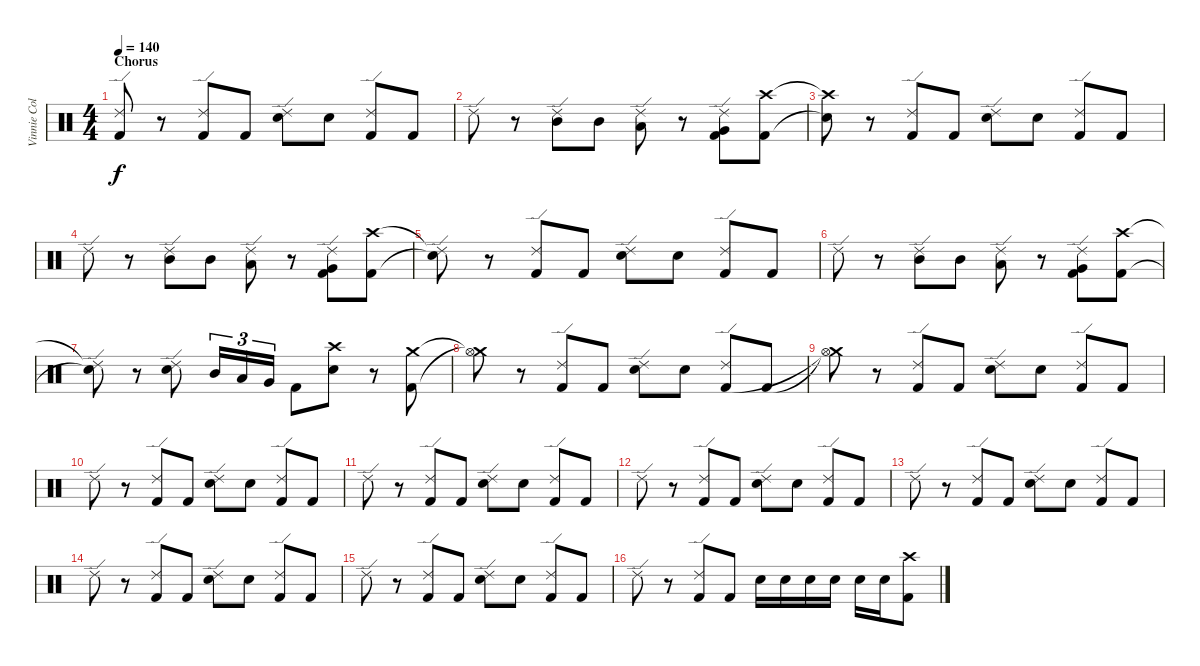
\track ("Vinnie Colaiuta" "Vinnie Col") {instrument percussion}
\staff {score}
\articulation defaults
\ts (4 4)
\section ("" "Chorus")
\tempo 140
\clef neutral
\ks c
("Ride (edge) 2"{t} "Kick (hit) 2"{t}).8{dy f} r.8 ("Ride (edge) 2" "Kick (hit) 2").8 "Kick (hit) 2".8 ("Ride (edge) 2" "Snare (hit) 2").8 "Snare (hit) 2".8 ("Ride (edge) 2" "Kick (hit) 2").8 "Kick (hit) 2".8 |
"Ride (edge) 2".8 r.8 ("Ride (edge) 2" "Mid Tom (hit)").8 "Mid Tom (hit)".8 ("Ride (edge) 2" "Low Tom (hit)").8 r.8 ("Ride (edge) 2" "Very Low Tom (hit)" "Kick (hit) 2").8 ("Crash high (hit)" "Kick (hit) 2").8 |
("Crash high (hit)"{t} "Snare (hit)"{t}).8 r.8 ("Ride (edge) 2" "Kick (hit) 2").8 "Kick (hit) 2".8 ("Ride (edge) 2" "Snare (hit) 2").8 "Snare (hit) 2".8 ("Ride (edge) 2" "Kick (hit) 2").8 "Kick (hit) 2".8 |
"Ride (edge) 2".8 r.8 ("Ride (edge) 2" "Mid Tom (hit)").8 "Mid Tom (hit)".8 ("Ride (edge) 2" "Low Tom (hit)").8 r.8 ("Ride (edge) 2" "Very Low Tom (hit)" "Kick (hit) 2").8 ("Crash high (hit)" "Kick (hit) 2").8 |
("Ride (edge) 2"{t} "Snare (hit)"{t}).8 r.8 ("Ride (edge) 2" "Kick (hit) 2").8 "Kick (hit) 2".8 ("Ride (edge) 2" "Snare (hit) 2").8 "Snare (hit) 2".8 ("Ride (edge) 2" "Kick (hit) 2").8 "Kick (hit) 2".8 |
"Ride (edge) 2".8 r.8 ("Ride (edge) 2" "Mid Tom (hit)").8 "Mid Tom (hit)".8 ("Ride (edge) 2" "Low Tom (hit)").8 r.8 ("Ride (edge) 2" "Very Low Tom (hit)" "Kick (hit) 2").8 ("Crash high (hit)" "Kick (hit) 2").8 |
("Ride (edge) 2"{t} "Snare (hit)"{t}).8 r.8 ("Ride (edge) 2" "Snare (hit) 2").8 "Mid Tom (hit)".16{tu (3 2)} "Low Tom (hit)".16{tu (3 2)} "Very Low Tom (hit)".16{tu (3 2)} "Kick (hit) 2".8 ("Crash high (hit)" "Snare (hit) 2").8 r.8 ("Crash medium (hit)" "Kick (hit) 2").8 |
("Crash medium (hit)"{t} "Hi-Hat (open)"{t}).8 r.8 ("Ride (edge) 2" "Kick (hit) 2").8 "Kick (hit) 2".8 ("Ride (edge) 2" "Snare (hit) 2").8 "Snare (hit) 2".8 ("Ride (edge) 2" "Kick (hit) 2").8 "Kick (hit) 2".8 |
("Crash medium (hit)"{t} "Hi-Hat (open)"{t}).8 r.8 ("Ride (edge) 2" "Kick (hit) 2").8 "Kick (hit) 2".8 ("Ride (edge) 2" "Snare (hit) 2").8 "Snare (hit) 2".8 ("Ride (edge) 2" "Kick (hit) 2").8 "Kick (hit) 2".8 |
"Ride (edge) 2".8 r.8 ("Ride (edge) 2" "Kick (hit) 2").8 "Kick (hit) 2".8 ("Ride (edge) 2" "Snare (hit) 2").8 "Snare (hit) 2".8 ("Ride (edge) 2" "Kick (hit) 2").8 "Kick (hit) 2".8 |
"Ride (edge) 2".8 r.8 ("Ride (edge) 2" "Kick (hit) 2").8 "Kick (hit) 2".8 ("Ride (edge) 2" "Snare (hit) 2").8 "Snare (hit) 2".8 ("Ride (edge) 2" "Kick (hit) 2").8 "Kick (hit) 2".8 |
"Ride (edge) 2".8 r.8 ("Ride (edge) 2" "Kick (hit) 2").8 "Kick (hit) 2".8 ("Ride (edge) 2" "Snare (hit) 2").8 "Snare (hit) 2".8 ("Ride (edge) 2" "Kick (hit) 2").8 "Kick (hit) 2".8 |
"Ride (edge) 2".8 r.8 ("Ride (edge) 2" "Kick (hit) 2").8 "Kick (hit) 2".8 ("Ride (edge) 2" "Snare (hit) 2").8 "Snare (hit) 2".8 ("Ride (edge) 2" "Kick (hit) 2").8 "Kick (hit) 2".8 |
"Ride (edge) 2".8 r.8 ("Ride (edge) 2" "Kick (hit) 2").8 "Kick (hit) 2".8 ("Ride (edge) 2" "Snare (hit) 2").8 "Snare (hit) 2".8 ("Ride (edge) 2" "Kick (hit) 2").8 "Kick (hit) 2".8 |
"Ride (edge) 2".8 r.8 ("Ride (edge) 2" "Kick (hit) 2").8 "Kick (hit) 2".8 ("Ride (edge) 2" "Snare (hit) 2").8 "Snare (hit) 2".8 ("Ride (edge) 2" "Kick (hit) 2").8 "Kick (hit) 2".8 |
"Ride (edge) 2".8 r.8 ("Ride (edge) 2" "Kick (hit) 2").8 "Kick (hit) 2".8 "Snare (hit) 2".16 "Snare (hit) 2".16 "Snare (hit) 2".16 "Snare (hit) 2".16 "Snare (hit) 2".16 "Snare (hit) 2".16 ("Crash high (hit)" "Kick (hit) 2").8
